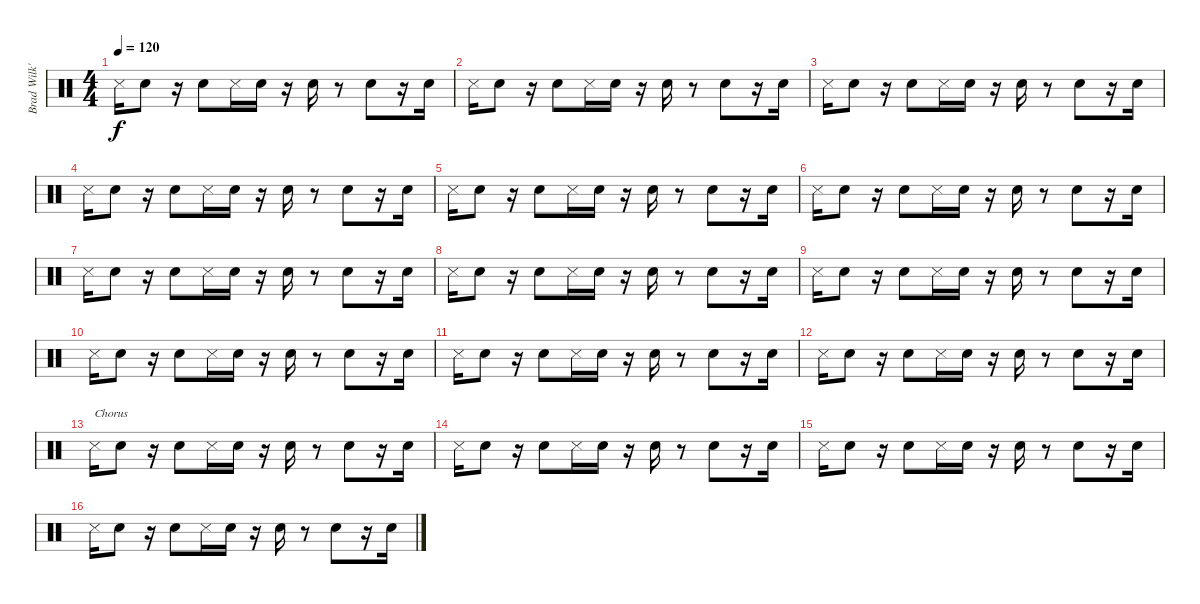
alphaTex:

\track ("Brad Wilk's Snare Drum" "Brad Wilk'") {instrument percussion}
\staff {score}
\articulation defaults
\ts (4 4)
\tempo 120
\clef neutral
\ks c "Snare (side stick) 3".16{dy f} "Electric Snare (hit)".8
r.16 "Electric Snare (hit)".8 "Snare (side stick) 3".16 "Electric Snare (hit)".16 r.16 "Electric Snare (hit)".16 r.8 "Electric Snare (hit)".8 r.16 "Electric Snare (hit)".16 |
"Snare (side stick) 3".16 "Electric Snare (hit)".8 r.16 "Electric Snare (hit)".8 "Snare (side stick) 3".16 "Electric Snare (hit)".16 r.16 "Electric Snare (hit)".16 r.8 "Electric Snare (hit)".8 r.16 "Electric Snare (hit)".16 |
"Snare (side stick) 3".16 "Electric Snare (hit)".8 r.16 "Electric Snare (hit)".8 "Snare (side stick) 3".16 "Electric Snare (hit)".16 r.16 "Electric Snare (hit)".16 r.8 "Electric Snare (hit)".8 r.16 "Electric Snare (hit)".16 |
"Snare (side stick) 3".16 "Electric Snare (hit)".8 r.16 "Electric Snare (hit)".8 "Snare (side stick) 3".16 "Electric Snare (hit)".16 r.16 "Electric Snare (hit)".16 r.8 "Electric Snare (hit)".8 r.16 "Electric Snare (hit)".16 |
"Snare (side stick) 3".16 "Electric Snare (hit)".8 r.16 "Electric Snare (hit)".8 "Snare (side stick) 3".16 "Electric Snare (hit)".16 r.16 "Electric Snare (hit)".16 r.8 "Electric Snare (hit)".8 r.16 "Electric Snare (hit)".16 |
"Snare (side stick) 3".16 "Electric Snare (hit)".8 r.16 "Electric Snare (hit)".8 "Snare (side stick) 3".16 "Electric Snare (hit)".16 r.16 "Electric Snare (hit)".16 r.8 "Electric Snare (hit)".8 r.16 "Electric Snare (hit)".16 |
"Snare (side stick) 3".16 "Electric Snare (hit)".8 r.16 "Electric Snare (hit)".8 "Snare (side stick) 3".16 "Electric Snare (hit)".16 r.16 "Electric Snare (hit)".16 r.8 "Electric Snare (hit)".8 r.16 "Electric Snare (hit)".16 |
"Snare (side stick) 3".16 "Electric Snare (hit)".8 r.16 "Electric Snare (hit)".8 "Snare (side stick) 3".16 "Electric Snare (hit)".16 r.16 "Electric Snare (hit)".16 r.8 "Electric Snare (hit)".8 r.16 "Electric Snare (hit)".16 |
"Snare (side stick) 3".16 "Electric Snare (hit)".8 r.16 "Electric Snare (hit)".8 "Snare (side stick) 3".16 "Electric Snare (hit)".16 r.16 "Electric Snare (hit)".16 r.8 "Electric Snare (hit)".8 r.16 "Electric Snare (hit)".16 |
"Snare (side stick) 3".16 "Electric Snare (hit)".8 r.16 "Electric Snare (hit)".8 "Snare (side stick) 3".16 "Electric Snare (hit)".16 r.16 "Electric Snare (hit)".16 r.8 "Electric Snare (hit)".8 r.16 "Electric Snare (hit)".16 |
"Snare (side stick) 3".16 "Electric Snare (hit)".8 r.16 "Electric Snare (hit)".8 "Snare (side stick) 3".16 "Electric Snare (hit)".16 r.16 "Electric Snare (hit)".16 r.8 "Electric Snare (hit)".8 r.16 "Electric Snare (hit)".16 |
"Snare (side stick) 3".16 "Electric Snare (hit)".8 r.16 "Electric Snare (hit)".8 "Snare (side stick) 3".16 "Electric Snare (hit)".16 r.16 "Electric Snare (hit)".16 r.8 "Electric Snare (hit)".8 r.16 "Electric Snare (hit)".16 |
"Snare (side stick) 3".16{txt "Chorus"} "Electric Snare (hit)".8 r.16 "Electric Snare (hit)".8 "Snare (side stick) 3".16 "Electric Snare (hit)".16 r.16 "Electric Snare (hit)".16 r.8 "Electric Snare (hit)".8 r.16 "Electric Snare (hit)".16 |
"Snare (side stick) 3".16 "Electric Snare (hit)".8 r.16 "Electric Snare (hit)".8 "Snare (side stick) 3".16 "Electric Snare (hit)".16 r.16 "Electric Snare (hit)".16 r.8 "Electric Snare (hit)".8 r.16 "Electric Snare (hit)".16 |
"Snare (side stick) 3".16 "Electric Snare (hit)".8 r.16 "Electric Snare (hit)".8 "Snare (side stick) 3".16 "Electric Snare (hit)".16 r.16 "Electric Snare (hit)".16 r.8 "Electric Snare (hit)".8 r.16 "Electric Snare (hit)".16 |
"Snare (side stick) 3".16 "Electric Snare (hit)".8 r.16 "Electric Snare (hit)".8 "Snare (side stick) 3".16 "Electric Snare (hit)".16 r.16 "Electric Snare (hit)".16 r.8 "Electric Snare (hit)".8 r.16 "Electric Snare (hit)".16
